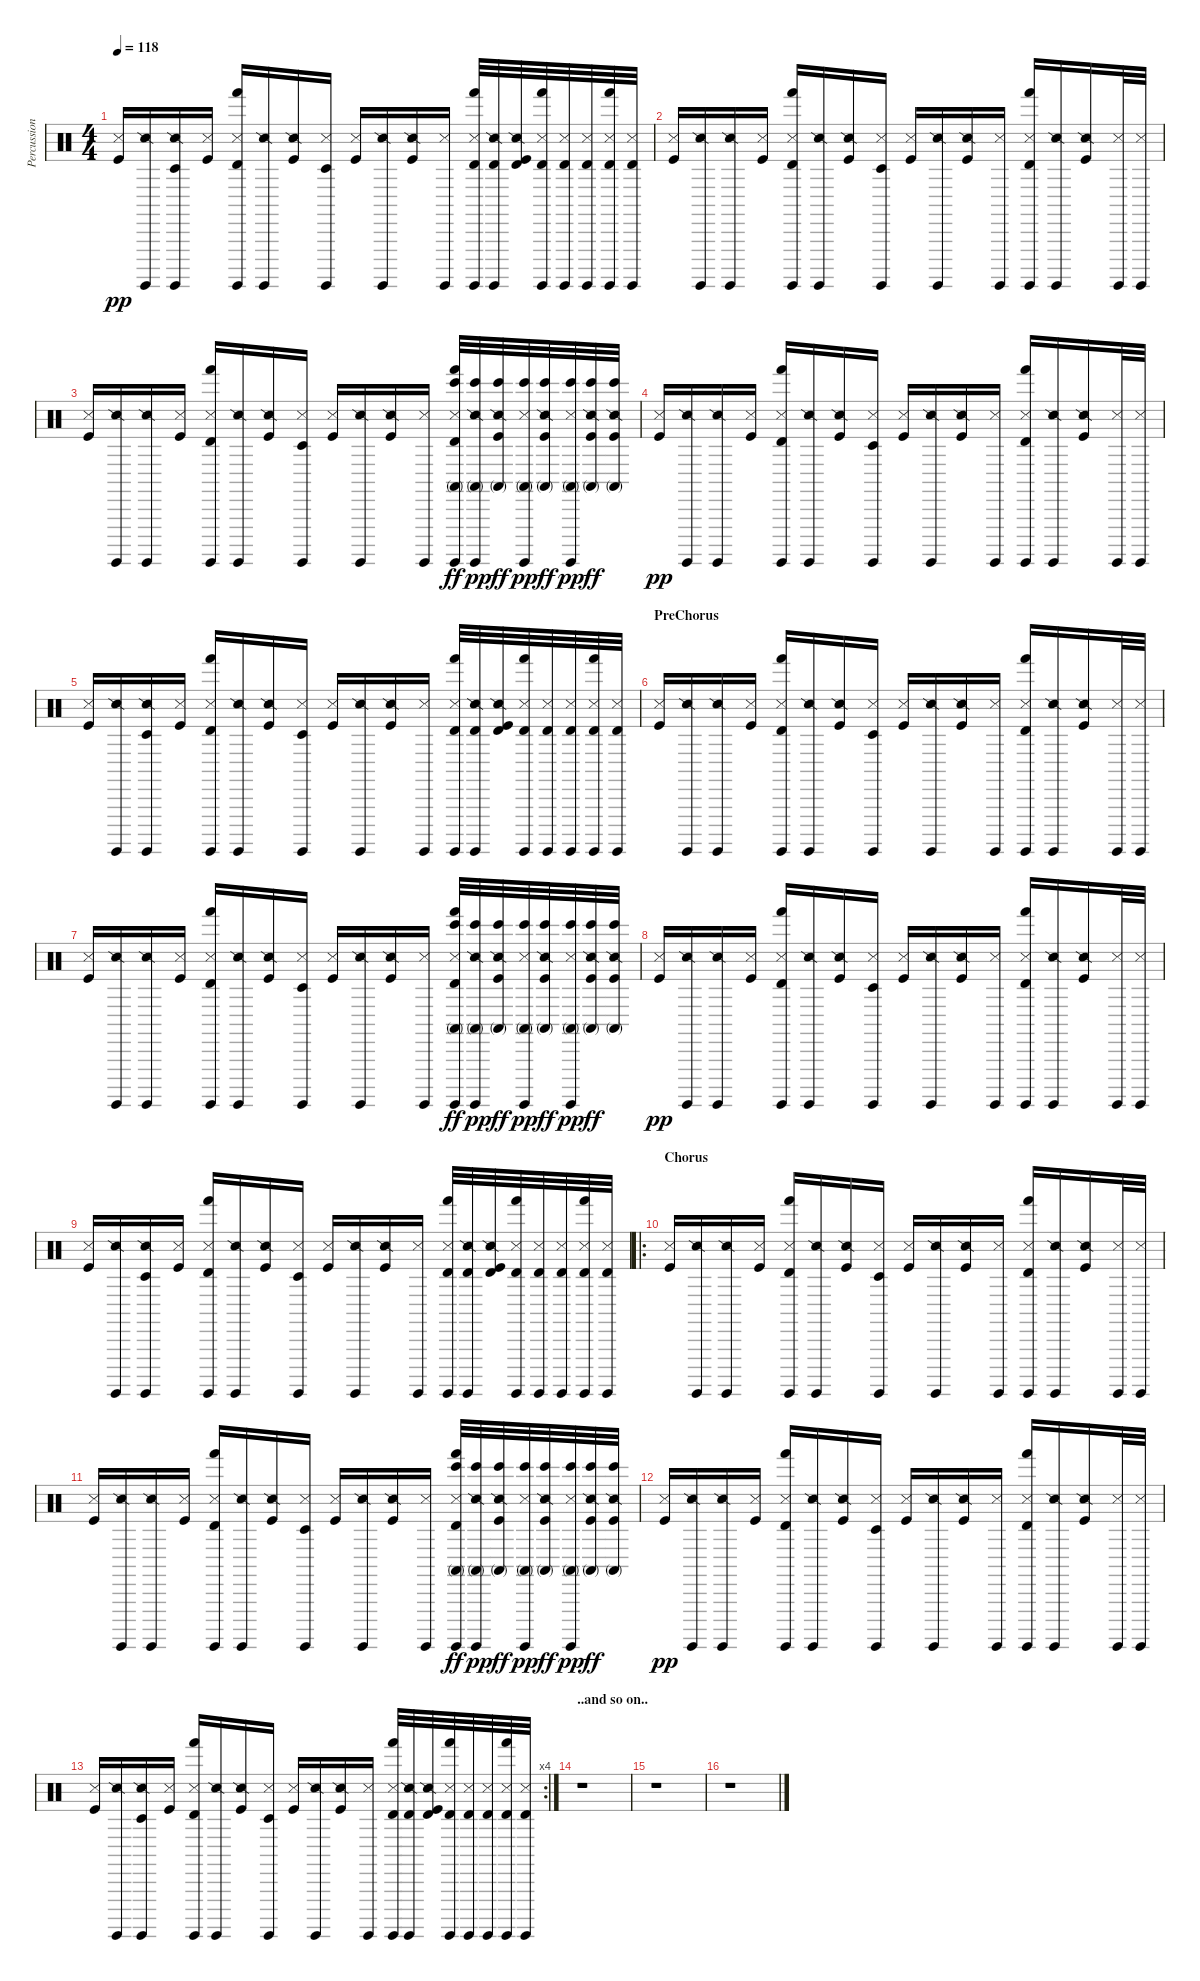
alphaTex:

\track ("Percussion" "Percussion") {instrument percussion}
\staff {score}
\articulation defaults
\ts (4 4)
\tempo 118
\clef neutral
\ks c
("Kick (hit)" "Snare (side stick) 3").16{dy pp} ("Surdo (hit)" "Snare (side stick) 2").16 ("Timbale low (hit)" "Surdo (hit)" "Snare (side stick) 2").16 ("Kick (hit)" "Metronome (hit)").16 ("Timbale high (hit)" "Hand (hit)" "Surdo (hit)" "Snare (side stick) 3").16 ("Surdo (hit)" "Snare (side stick) 2").16 ("Kick (hit)" "Snare (side stick) 2").16 ("Timbale low (hit)" "Surdo (hit)" "Metronome (hit)").16 ("Kick (hit)" "Snare (side stick) 3").16 ("Surdo (hit)" "Snare (side stick) 2").16 ("Kick (hit)" "Snare (side stick) 2").16 ("Surdo (hit)" "Metronome (hit)").16 ("Timbale high (hit)" "Hand (hit)" "Surdo (hit)" "Snare (side stick) 3").32 ("Timbale high (hit)" "Surdo (hit)" "Snare (side stick) 2").32 ("Timbale high (hit)" "Kick (hit)" "Snare (side stick) 2").32 ("Timbale high (hit)" "Hand (hit)" "Surdo (hit)" "Metronome (hit)").32 ("Timbale high (hit)" "Surdo (hit)" "Metronome (hit)").32 ("Timbale high (hit)" "Surdo (hit)" "Metronome (hit)").32 ("Timbale high (hit)" "Hand (hit)" "Surdo (hit)" "Metronome (hit)").32 ("Timbale high (hit)" "Surdo (hit)" "Metronome (hit)").32 |
("Kick (hit)" "Snare (side stick) 3").16 ("Surdo (hit)" "Snare (side stick) 2").16 ("Surdo (hit)" "Snare (side stick) 2").16 ("Kick (hit)" "Metronome (hit)").16 ("Timbale high (hit)" "Hand (hit)" "Surdo (hit)" "Snare (side stick) 3").16 ("Surdo (hit)" "Snare (side stick) 2").16 ("Kick (hit)" "Snare (side stick) 2").16 ("Timbale low (hit)" "Surdo (hit)" "Metronome (hit)").16 ("Kick (hit)" "Snare (side stick) 3").16 ("Surdo (hit)" "Snare (side stick) 2").16 ("Kick (hit)" "Snare (side stick) 2").16 ("Surdo (hit)" "Metronome (hit)").16 ("Timbale high (hit)" "Hand (hit)" "Surdo (hit)" "Snare (side stick) 3").16 ("Surdo (hit)" "Snare (side stick) 2").16 ("Kick (hit)" "Snare (side stick) 2").16 ("Surdo (hit)" "Metronome (hit)").32 ("Surdo (hit)" "Metronome (hit)").32 |
("Kick (hit)" "Snare (side stick) 3").16 ("Surdo (hit)" "Snare (side stick) 2").16 ("Surdo (hit)" "Snare (side stick) 2").16 ("Kick (hit)" "Metronome (hit)").16 ("Timbale high (hit)" "Hand (hit)" "Surdo (hit)" "Snare (side stick) 3").16 ("Surdo (hit)" "Snare (side stick) 2").16 ("Kick (hit)" "Snare (side stick) 2").16 ("Timbale low (hit)" "Surdo (hit)" "Metronome (hit)").16 ("Kick (hit)" "Snare (side stick) 3").16 ("Surdo (hit)" "Snare (side stick) 2").16 ("Kick (hit)" "Snare (side stick) 2").16 ("Surdo (hit)" "Metronome (hit)").16 ("Timbale high (hit)" "Hand (hit)" "Bongo High (hit)" "Surdo (hit)" "Snare (side stick) 3" "Conga high (mute)").32{dy ff} ("Bongo High (hit)" "Surdo (hit)" "Snare (side stick) 2" "Conga high (mute)").32{dy pp} ("Bongo High (hit)" "Kick (hit)" "Snare (side stick) 2" "Conga high (mute)").32{dy ff} ("Bongo High (hit)" "Surdo (hit)" "Metronome (hit)" "Conga high (mute)").32{dy pp} ("Bongo High (hit)" "Kick (hit)" "Snare (side stick) 2" "Conga high (mute)").32{dy ff} ("Bongo High (hit)" "Surdo (hit)" "Metronome (hit)" "Conga high (mute)").32{dy pp} ("Bongo High (hit)" "Kick (hit)" "Snare (side stick) 2" "Conga high (mute)").32{dy ff} ("Bongo High (hit)" "Kick (hit)" "Snare (side stick) 2" "Conga high (mute)").32 |
("Kick (hit)" "Snare (side stick) 3").16{dy pp} ("Surdo (hit)" "Snare (side stick) 2").16 ("Surdo (hit)" "Snare (side stick) 2").16 ("Kick (hit)" "Metronome (hit)").16 ("Timbale high (hit)" "Hand (hit)" "Surdo (hit)" "Snare (side stick) 3").16 ("Surdo (hit)" "Snare (side stick) 2").16 ("Kick (hit)" "Snare (side stick) 2").16 ("Timbale low (hit)" "Surdo (hit)" "Metronome (hit)").16 ("Kick (hit)" "Snare (side stick) 3").16 ("Surdo (hit)" "Snare (side stick) 2").16 ("Kick (hit)" "Snare (side stick) 2").16 ("Surdo (hit)" "Metronome (hit)").16 ("Timbale high (hit)" "Hand (hit)" "Surdo (hit)" "Snare (side stick) 3").16 ("Surdo (hit)" "Snare (side stick) 2").16 ("Kick (hit)" "Snare (side stick) 2").16 ("Surdo (hit)" "Metronome (hit)").32 ("Surdo (hit)" "Metronome (hit)").32 |
("Kick (hit)" "Snare (side stick) 3").16 ("Surdo (hit)" "Snare (side stick) 2").16 ("Timbale low (hit)" "Surdo (hit)" "Snare (side stick) 2").16 ("Kick (hit)" "Metronome (hit)").16 ("Timbale high (hit)" "Hand (hit)" "Surdo (hit)" "Snare (side stick) 3").16 ("Surdo (hit)" "Snare (side stick) 2").16 ("Kick (hit)" "Snare (side stick) 2").16 ("Timbale low (hit)" "Surdo (hit)" "Metronome (hit)").16 ("Kick (hit)" "Snare (side stick) 3").16 ("Surdo (hit)" "Snare (side stick) 2").16 ("Kick (hit)" "Snare (side stick) 2").16 ("Surdo (hit)" "Metronome (hit)").16 ("Timbale high (hit)" "Hand (hit)" "Surdo (hit)" "Snare (side stick) 3").32 ("Timbale high (hit)" "Surdo (hit)" "Snare (side stick) 2").32 ("Timbale high (hit)" "Kick (hit)" "Snare (side stick) 2").32 ("Timbale high (hit)" "Hand (hit)" "Surdo (hit)" "Metronome (hit)").32 ("Timbale high (hit)" "Surdo (hit)" "Metronome (hit)").32 ("Timbale high (hit)" "Surdo (hit)" "Metronome (hit)").32 ("Timbale high (hit)" "Hand (hit)" "Surdo (hit)" "Metronome (hit)").32 ("Timbale high (hit)" "Surdo (hit)" "Metronome (hit)").32 |
\section ("" "PreChorus")
("Kick (hit)" "Snare (side stick) 3").16 ("Surdo (hit)" "Snare (side stick) 2").16 ("Surdo (hit)" "Snare (side stick) 2").16 ("Kick (hit)" "Metronome (hit)").16 ("Timbale high (hit)" "Hand (hit)" "Surdo (hit)" "Snare (side stick) 3").16 ("Surdo (hit)" "Snare (side stick) 2").16 ("Kick (hit)" "Snare (side stick) 2").16 ("Timbale low (hit)" "Surdo (hit)" "Metronome (hit)").16 ("Kick (hit)" "Snare (side stick) 3").16 ("Surdo (hit)" "Snare (side stick) 2").16 ("Kick (hit)" "Snare (side stick) 2").16 ("Surdo (hit)" "Metronome (hit)").16 ("Timbale high (hit)" "Hand (hit)" "Surdo (hit)" "Snare (side stick) 3").16 ("Surdo (hit)" "Snare (side stick) 2").16 ("Kick (hit)" "Snare (side stick) 2").16 ("Surdo (hit)" "Metronome (hit)").32 ("Surdo (hit)" "Metronome (hit)").32 |
("Kick (hit)" "Snare (side stick) 3").16 ("Surdo (hit)" "Snare (side stick) 2").16 ("Surdo (hit)" "Snare (side stick) 2").16 ("Kick (hit)" "Metronome (hit)").16 ("Timbale high (hit)" "Hand (hit)" "Surdo (hit)" "Snare (side stick) 3").16 ("Surdo (hit)" "Snare (side stick) 2").16 ("Kick (hit)" "Snare (side stick) 2").16 ("Timbale low (hit)" "Surdo (hit)" "Metronome (hit)").16 ("Kick (hit)" "Snare (side stick) 3").16 ("Surdo (hit)" "Snare (side stick) 2").16 ("Kick (hit)" "Snare (side stick) 2").16 ("Surdo (hit)" "Metronome (hit)").16 ("Timbale high (hit)" "Hand (hit)" "Bongo High (hit)" "Surdo (hit)" "Snare (side stick) 3" "Conga high (mute)").32{dy ff} ("Bongo High (hit)" "Surdo (hit)" "Snare (side stick) 2" "Conga high (mute)").32{dy pp} ("Bongo High (hit)" "Kick (hit)" "Snare (side stick) 2" "Conga high (mute)").32{dy ff} ("Bongo High (hit)" "Surdo (hit)" "Metronome (hit)" "Conga high (mute)").32{dy pp} ("Bongo High (hit)" "Kick (hit)" "Snare (side stick) 2" "Conga high (mute)").32{dy ff} ("Bongo High (hit)" "Surdo (hit)" "Metronome (hit)" "Conga high (mute)").32{dy pp} ("Bongo High (hit)" "Kick (hit)" "Snare (side stick) 2" "Conga high (mute)").32{dy ff} ("Bongo High (hit)" "Kick (hit)" "Snare (side stick) 2" "Conga high (mute)").32 |
("Kick (hit)" "Snare (side stick) 3").16{dy pp} ("Surdo (hit)" "Snare (side stick) 2").16 ("Surdo (hit)" "Snare (side stick) 2").16 ("Kick (hit)" "Metronome (hit)").16 ("Timbale high (hit)" "Hand (hit)" "Surdo (hit)" "Snare (side stick) 3").16 ("Surdo (hit)" "Snare (side stick) 2").16 ("Kick (hit)" "Snare (side stick) 2").16 ("Timbale low (hit)" "Surdo (hit)" "Metronome (hit)").16 ("Kick (hit)" "Snare (side stick) 3").16 ("Surdo (hit)" "Snare (side stick) 2").16 ("Kick (hit)" "Snare (side stick) 2").16 ("Surdo (hit)" "Metronome (hit)").16 ("Timbale high (hit)" "Hand (hit)" "Surdo (hit)" "Snare (side stick) 3").16 ("Surdo (hit)" "Snare (side stick) 2").16 ("Kick (hit)" "Snare (side stick) 2").16 ("Surdo (hit)" "Metronome (hit)").32 ("Surdo (hit)" "Metronome (hit)").32 |
("Kick (hit)" "Snare (side stick) 3").16 ("Surdo (hit)" "Snare (side stick) 2").16 ("Timbale low (hit)" "Surdo (hit)" "Snare (side stick) 2").16 ("Kick (hit)" "Metronome (hit)").16 ("Timbale high (hit)" "Hand (hit)" "Surdo (hit)" "Snare (side stick) 3").16 ("Surdo (hit)" "Snare (side stick) 2").16 ("Kick (hit)" "Snare (side stick) 2").16 ("Timbale low (hit)" "Surdo (hit)" "Metronome (hit)").16 ("Kick (hit)" "Snare (side stick) 3").16 ("Surdo (hit)" "Snare (side stick) 2").16 ("Kick (hit)" "Snare (side stick) 2").16 ("Surdo (hit)" "Metronome (hit)").16 ("Timbale high (hit)" "Hand (hit)" "Surdo (hit)" "Snare (side stick) 3").32 ("Timbale high (hit)" "Surdo (hit)" "Snare (side stick) 2").32 ("Timbale high (hit)" "Kick (hit)" "Snare (side stick) 2").32 ("Timbale high (hit)" "Hand (hit)" "Surdo (hit)" "Metronome (hit)").32 ("Timbale high (hit)" "Surdo (hit)" "Metronome (hit)").32 ("Timbale high (hit)" "Surdo (hit)" "Metronome (hit)").32 ("Timbale high (hit)" "Hand (hit)" "Surdo (hit)" "Metronome (hit)").32 ("Timbale high (hit)" "Surdo (hit)" "Metronome (hit)").32 |
\ro
\section ("" "Chorus")
("Kick (hit)" "Snare (side stick) 3").16 ("Surdo (hit)" "Snare (side stick) 2").16 ("Surdo (hit)" "Snare (side stick) 2").16 ("Kick (hit)" "Metronome (hit)").16 ("Timbale high (hit)" "Hand (hit)" "Surdo (hit)" "Snare (side stick) 3").16 ("Surdo (hit)" "Snare (side stick) 2").16 ("Kick (hit)" "Snare (side stick) 2").16 ("Timbale low (hit)" "Surdo (hit)" "Metronome (hit)").16 ("Kick (hit)" "Snare (side stick) 3").16 ("Surdo (hit)" "Snare (side stick) 2").16 ("Kick (hit)" "Snare (side stick) 2").16 ("Surdo (hit)" "Metronome (hit)").16 ("Timbale high (hit)" "Hand (hit)" "Surdo (hit)" "Snare (side stick) 3").16 ("Surdo (hit)" "Snare (side stick) 2").16 ("Kick (hit)" "Snare (side stick) 2").16 ("Surdo (hit)" "Metronome (hit)").32 ("Surdo (hit)" "Metronome (hit)").32 |
("Kick (hit)" "Snare (side stick) 3").16 ("Surdo (hit)" "Snare (side stick) 2").16 ("Surdo (hit)" "Snare (side stick) 2").16 ("Kick (hit)" "Metronome (hit)").16 ("Timbale high (hit)" "Hand (hit)" "Surdo (hit)" "Snare (side stick) 3").16 ("Surdo (hit)" "Snare (side stick) 2").16 ("Kick (hit)" "Snare (side stick) 2").16 ("Timbale low (hit)" "Surdo (hit)" "Metronome (hit)").16 ("Kick (hit)" "Snare (side stick) 3").16 ("Surdo (hit)" "Snare (side stick) 2").16 ("Kick (hit)" "Snare (side stick) 2").16 ("Surdo (hit)" "Metronome (hit)").16 ("Timbale high (hit)" "Hand (hit)" "Bongo High (hit)" "Surdo (hit)" "Snare (side stick) 3" "Conga high (mute)").32{dy ff} ("Bongo High (hit)" "Surdo (hit)" "Snare (side stick) 2" "Conga high (mute)").32{dy pp} ("Bongo High (hit)" "Kick (hit)" "Snare (side stick) 2" "Conga high (mute)").32{dy ff} ("Bongo High (hit)" "Surdo (hit)" "Metronome (hit)" "Conga high (mute)").32{dy pp} ("Bongo High (hit)" "Kick (hit)" "Snare (side stick) 2" "Conga high (mute)").32{dy ff} ("Bongo High (hit)" "Surdo (hit)" "Metronome (hit)" "Conga high (mute)").32{dy pp} ("Bongo High (hit)" "Kick (hit)" "Snare (side stick) 2" "Conga high (mute)").32{dy ff} ("Bongo High (hit)" "Kick (hit)" "Snare (side stick) 2" "Conga high (mute)").32 |
("Kick (hit)" "Snare (side stick) 3").16{dy pp} ("Surdo (hit)" "Snare (side stick) 2").16 ("Surdo (hit)" "Snare (side stick) 2").16 ("Kick (hit)" "Metronome (hit)").16 ("Timbale high (hit)" "Hand (hit)" "Surdo (hit)" "Snare (side stick) 3").16 ("Surdo (hit)" "Snare (side stick) 2").16 ("Kick (hit)" "Snare (side stick) 2").16 ("Timbale low (hit)" "Surdo (hit)" "Metronome (hit)").16 ("Kick (hit)" "Snare (side stick) 3").16 ("Surdo (hit)" "Snare (side stick) 2").16 ("Kick (hit)" "Snare (side stick) 2").16 ("Surdo (hit)" "Metronome (hit)").16 ("Timbale high (hit)" "Hand (hit)" "Surdo (hit)" "Snare (side stick) 3").16 ("Surdo (hit)" "Snare (side stick) 2").16 ("Kick (hit)" "Snare (side stick) 2").16 ("Surdo (hit)" "Metronome (hit)").32 ("Surdo (hit)" "Metronome (hit)").32 |
\rc 4
("Kick (hit)" "Snare (side stick) 3").16 ("Surdo (hit)" "Snare (side stick) 2").16 ("Timbale low (hit)" "Surdo (hit)" "Snare (side stick) 2").16 ("Kick (hit)" "Metronome (hit)").16 ("Timbale high (hit)" "Hand (hit)" "Surdo (hit)" "Snare (side stick) 3").16 ("Surdo (hit)" "Snare (side stick) 2").16 ("Kick (hit)" "Snare (side stick) 2").16 ("Timbale low (hit)" "Surdo (hit)" "Metronome (hit)").16 ("Kick (hit)" "Snare (side stick) 3").16 ("Surdo (hit)" "Snare (side stick) 2").16 ("Kick (hit)" "Snare (side stick) 2").16 ("Surdo (hit)" "Metronome (hit)").16 ("Timbale high (hit)" "Hand (hit)" "Surdo (hit)" "Snare (side stick) 3").32 ("Timbale high (hit)" "Surdo (hit)" "Snare (side stick) 2").32 ("Timbale high (hit)" "Kick (hit)" "Snare (side stick) 2").32 ("Timbale high (hit)" "Hand (hit)" "Surdo (hit)" "Metronome (hit)").32 ("Timbale high (hit)" "Surdo (hit)" "Metronome (hit)").32 ("Timbale high (hit)" "Surdo (hit)" "Metronome (hit)").32 ("Timbale high (hit)" "Hand (hit)" "Surdo (hit)" "Metronome (hit)").32 ("Timbale high (hit)" "Surdo (hit)" "Metronome (hit)").32 |
\section ("" "..and so on..")
r.1 |
r.1 |
r.1
